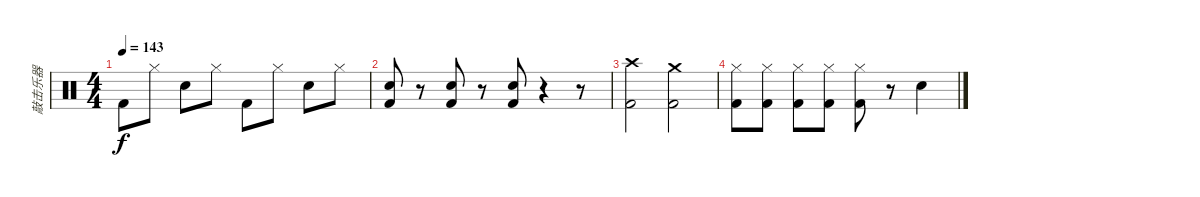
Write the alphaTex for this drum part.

\track ("敲击乐器" "敲击乐器") {instrument percussion}
\staff {score}
\articulation defaults
\ts (4 4)
\tempo 143
\clef neutral
\ks c "Kick (hit) 2".8{dy f} "Hi-Hat (closed)".8 "Snare (hit) 2".8 "Hi-Hat (closed)".8 "Kick (hit) 2".8 "Hi-Hat (closed)".8 "Snare (hit) 2".8 "Hi-Hat (closed)".8
|
("Snare (hit) 2" "Kick (hit) 2").8 r.8 ("Snare (hit) 2" "Kick (hit) 2").8 r.8 ("Snare (hit) 2" "Kick (hit) 2").8 r.4 r.8 |
("Crash high (hit)" "Kick (hit) 2").2 ("Crash medium (hit)" "Kick (hit) 2").2 |
("Hi-Hat (closed)" "Kick (hit) 2").8 ("Hi-Hat (closed)" "Kick (hit) 2").8 ("Hi-Hat (closed)" "Kick (hit) 2").8 ("Hi-Hat (closed)" "Kick (hit) 2").8 ("Hi-Hat (closed)" "Kick (hit) 2").8 r.8 "Snare (hit) 2".4
